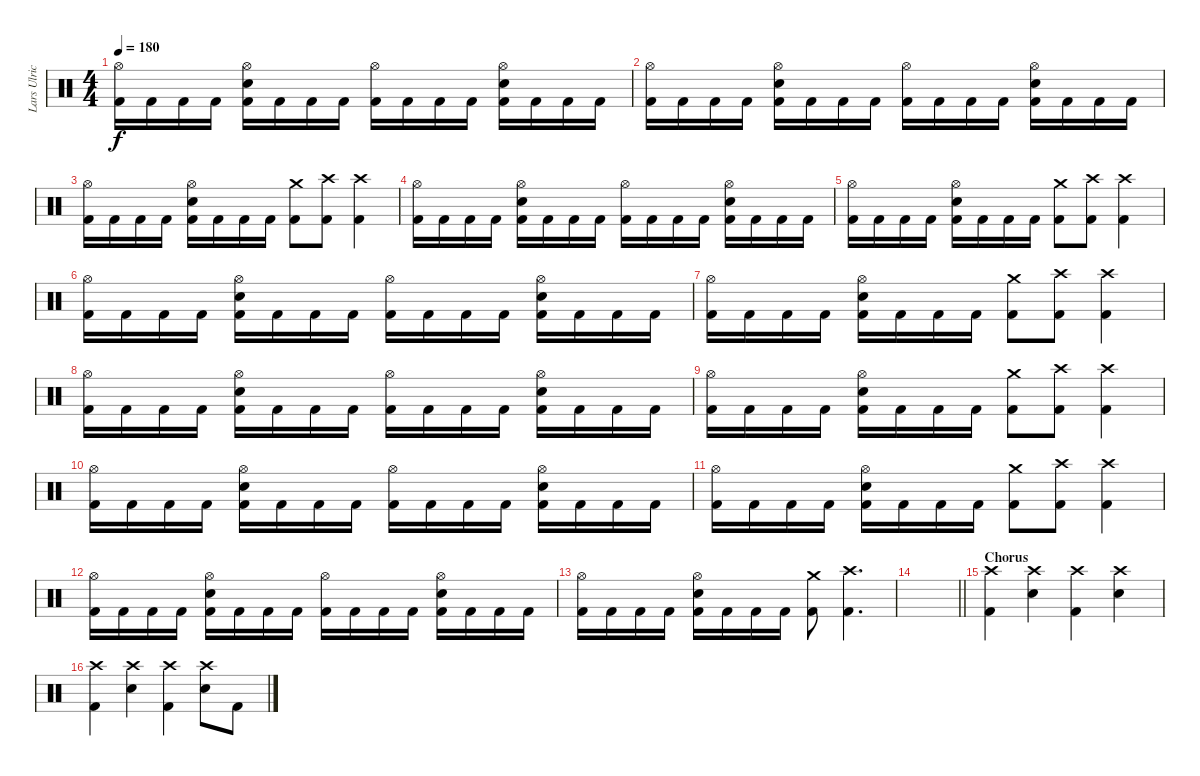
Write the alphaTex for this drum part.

\track ("Lars Ulrich" "Lars Ulric") {instrument percussion}
\staff {score}
\articulation defaults
\ts (4 4)
\tempo 180
\clef neutral
\ks c
("Hi-Hat (open)" "Kick (hit) 2").16{dy f} "Kick (hit) 2".16 "Kick (hit) 2".16 "Kick (hit) 2".16 ("Hi-Hat (open)" "Electric Snare (hit)" "Kick (hit) 2").16 "Kick (hit) 2".16 "Kick (hit) 2".16 "Kick (hit) 2".16 ("Hi-Hat (open)" "Kick (hit) 2").16 "Kick (hit) 2".16 "Kick (hit) 2".16 "Kick (hit) 2".16 ("Hi-Hat (open)" "Electric Snare (hit)" "Kick (hit) 2").16 "Kick (hit) 2".16 "Kick (hit) 2".16 "Kick (hit) 2".16 |
("Hi-Hat (open)" "Kick (hit) 2").16 "Kick (hit) 2".16 "Kick (hit) 2".16 "Kick (hit) 2".16 ("Hi-Hat (open)" "Electric Snare (hit)" "Kick (hit) 2").16 "Kick (hit) 2".16 "Kick (hit) 2".16 "Kick (hit) 2".16 ("Hi-Hat (open)" "Kick (hit) 2").16 "Kick (hit) 2".16 "Kick (hit) 2".16 "Kick (hit) 2".16 ("Hi-Hat (open)" "Electric Snare (hit)" "Kick (hit) 2").16 "Kick (hit) 2".16 "Kick (hit) 2".16 "Kick (hit) 2".16 |
("Hi-Hat (open)" "Kick (hit) 2").16 "Kick (hit) 2".16 "Kick (hit) 2".16 "Kick (hit) 2".16 ("Hi-Hat (open)" "Electric Snare (hit)" "Kick (hit) 2").16 "Kick (hit) 2".16 "Kick (hit) 2".16 "Kick (hit) 2".16 ("Crash medium (hit)" "Kick (hit) 2").8 ("Crash high (hit)" "Kick (hit) 2").8 ("Crash high (hit)" "Kick (hit) 2").4 |
("Hi-Hat (open)" "Kick (hit) 2").16 "Kick (hit) 2".16 "Kick (hit) 2".16 "Kick (hit) 2".16 ("Hi-Hat (open)" "Electric Snare (hit)" "Kick (hit) 2").16 "Kick (hit) 2".16 "Kick (hit) 2".16 "Kick (hit) 2".16 ("Hi-Hat (open)" "Kick (hit) 2").16 "Kick (hit) 2".16 "Kick (hit) 2".16 "Kick (hit) 2".16 ("Hi-Hat (open)" "Electric Snare (hit)" "Kick (hit) 2").16 "Kick (hit) 2".16 "Kick (hit) 2".16 "Kick (hit) 2".16 |
("Hi-Hat (open)" "Kick (hit) 2").16 "Kick (hit) 2".16 "Kick (hit) 2".16 "Kick (hit) 2".16 ("Hi-Hat (open)" "Electric Snare (hit)" "Kick (hit) 2").16 "Kick (hit) 2".16 "Kick (hit) 2".16 "Kick (hit) 2".16 ("Crash medium (hit)" "Kick (hit) 2").8 ("Crash high (hit)" "Kick (hit) 2").8 ("Crash high (hit)" "Kick (hit) 2").4 |
("Hi-Hat (open)" "Kick (hit) 2").16 "Kick (hit) 2".16 "Kick (hit) 2".16 "Kick (hit) 2".16 ("Hi-Hat (open)" "Electric Snare (hit)" "Kick (hit) 2").16 "Kick (hit) 2".16 "Kick (hit) 2".16 "Kick (hit) 2".16 ("Hi-Hat (open)" "Kick (hit) 2").16 "Kick (hit) 2".16 "Kick (hit) 2".16 "Kick (hit) 2".16 ("Hi-Hat (open)" "Electric Snare (hit)" "Kick (hit) 2").16 "Kick (hit) 2".16 "Kick (hit) 2".16 "Kick (hit) 2".16 |
("Hi-Hat (open)" "Kick (hit) 2").16 "Kick (hit) 2".16 "Kick (hit) 2".16 "Kick (hit) 2".16 ("Hi-Hat (open)" "Electric Snare (hit)" "Kick (hit) 2").16 "Kick (hit) 2".16 "Kick (hit) 2".16 "Kick (hit) 2".16 ("Crash medium (hit)" "Kick (hit) 2").8 ("Crash high (hit)" "Kick (hit) 2").8 ("Crash high (hit)" "Kick (hit) 2").4 |
("Hi-Hat (open)" "Kick (hit) 2").16 "Kick (hit) 2".16 "Kick (hit) 2".16 "Kick (hit) 2".16 ("Hi-Hat (open)" "Electric Snare (hit)" "Kick (hit) 2").16 "Kick (hit) 2".16 "Kick (hit) 2".16 "Kick (hit) 2".16 ("Hi-Hat (open)" "Kick (hit) 2").16 "Kick (hit) 2".16 "Kick (hit) 2".16 "Kick (hit) 2".16 ("Hi-Hat (open)" "Electric Snare (hit)" "Kick (hit) 2").16 "Kick (hit) 2".16 "Kick (hit) 2".16 "Kick (hit) 2".16 |
("Hi-Hat (open)" "Kick (hit) 2").16 "Kick (hit) 2".16 "Kick (hit) 2".16 "Kick (hit) 2".16 ("Hi-Hat (open)" "Electric Snare (hit)" "Kick (hit) 2").16 "Kick (hit) 2".16 "Kick (hit) 2".16 "Kick (hit) 2".16 ("Crash medium (hit)" "Kick (hit) 2").8 ("Crash high (hit)" "Kick (hit) 2").8 ("Crash high (hit)" "Kick (hit) 2").4 |
("Hi-Hat (open)" "Kick (hit) 2").16 "Kick (hit) 2".16 "Kick (hit) 2".16 "Kick (hit) 2".16 ("Hi-Hat (open)" "Electric Snare (hit)" "Kick (hit) 2").16 "Kick (hit) 2".16 "Kick (hit) 2".16 "Kick (hit) 2".16 ("Hi-Hat (open)" "Kick (hit) 2").16 "Kick (hit) 2".16 "Kick (hit) 2".16 "Kick (hit) 2".16 ("Hi-Hat (open)" "Electric Snare (hit)" "Kick (hit) 2").16 "Kick (hit) 2".16 "Kick (hit) 2".16 "Kick (hit) 2".16 |
("Hi-Hat (open)" "Kick (hit) 2").16 "Kick (hit) 2".16 "Kick (hit) 2".16 "Kick (hit) 2".16 ("Hi-Hat (open)" "Electric Snare (hit)" "Kick (hit) 2").16 "Kick (hit) 2".16 "Kick (hit) 2".16 "Kick (hit) 2".16 ("Crash medium (hit)" "Kick (hit) 2").8 ("Crash high (hit)" "Kick (hit) 2").8 ("Crash high (hit)" "Kick (hit) 2").4 |
("Hi-Hat (open)" "Kick (hit) 2").16 "Kick (hit) 2".16 "Kick (hit) 2".16 "Kick (hit) 2".16 ("Hi-Hat (open)" "Electric Snare (hit)" "Kick (hit) 2").16 "Kick (hit) 2".16 "Kick (hit) 2".16 "Kick (hit) 2".16 ("Hi-Hat (open)" "Kick (hit) 2").16 "Kick (hit) 2".16 "Kick (hit) 2".16 "Kick (hit) 2".16 ("Hi-Hat (open)" "Electric Snare (hit)" "Kick (hit) 2").16 "Kick (hit) 2".16 "Kick (hit) 2".16 "Kick (hit) 2".16 |
("Hi-Hat (open)" "Kick (hit) 2").16 "Kick (hit) 2".16 "Kick (hit) 2".16 "Kick (hit) 2".16 ("Hi-Hat (open)" "Electric Snare (hit)" "Kick (hit) 2").16 "Kick (hit) 2".16 "Kick (hit) 2".16 "Kick (hit) 2".16 ("Crash medium (hit)" "Kick (hit) 2").8 ("Crash high (hit)" "Kick (hit) 2").4{d} |
\barLineRight lightlight
|
\section ("" "Chorus")
("Crash high (hit)" "Kick (hit) 2").4 ("Crash high (hit)" "Electric Snare (hit)").4 ("Crash high (hit)" "Kick (hit) 2").4 ("Crash high (hit)" "Electric Snare (hit)").4 |
("Crash high (hit)" "Kick (hit) 2").4 ("Crash high (hit)" "Electric Snare (hit)").4 ("Crash high (hit)" "Kick (hit) 2").4 ("Crash high (hit)" "Electric Snare (hit)").8 "Kick (hit) 2".8
